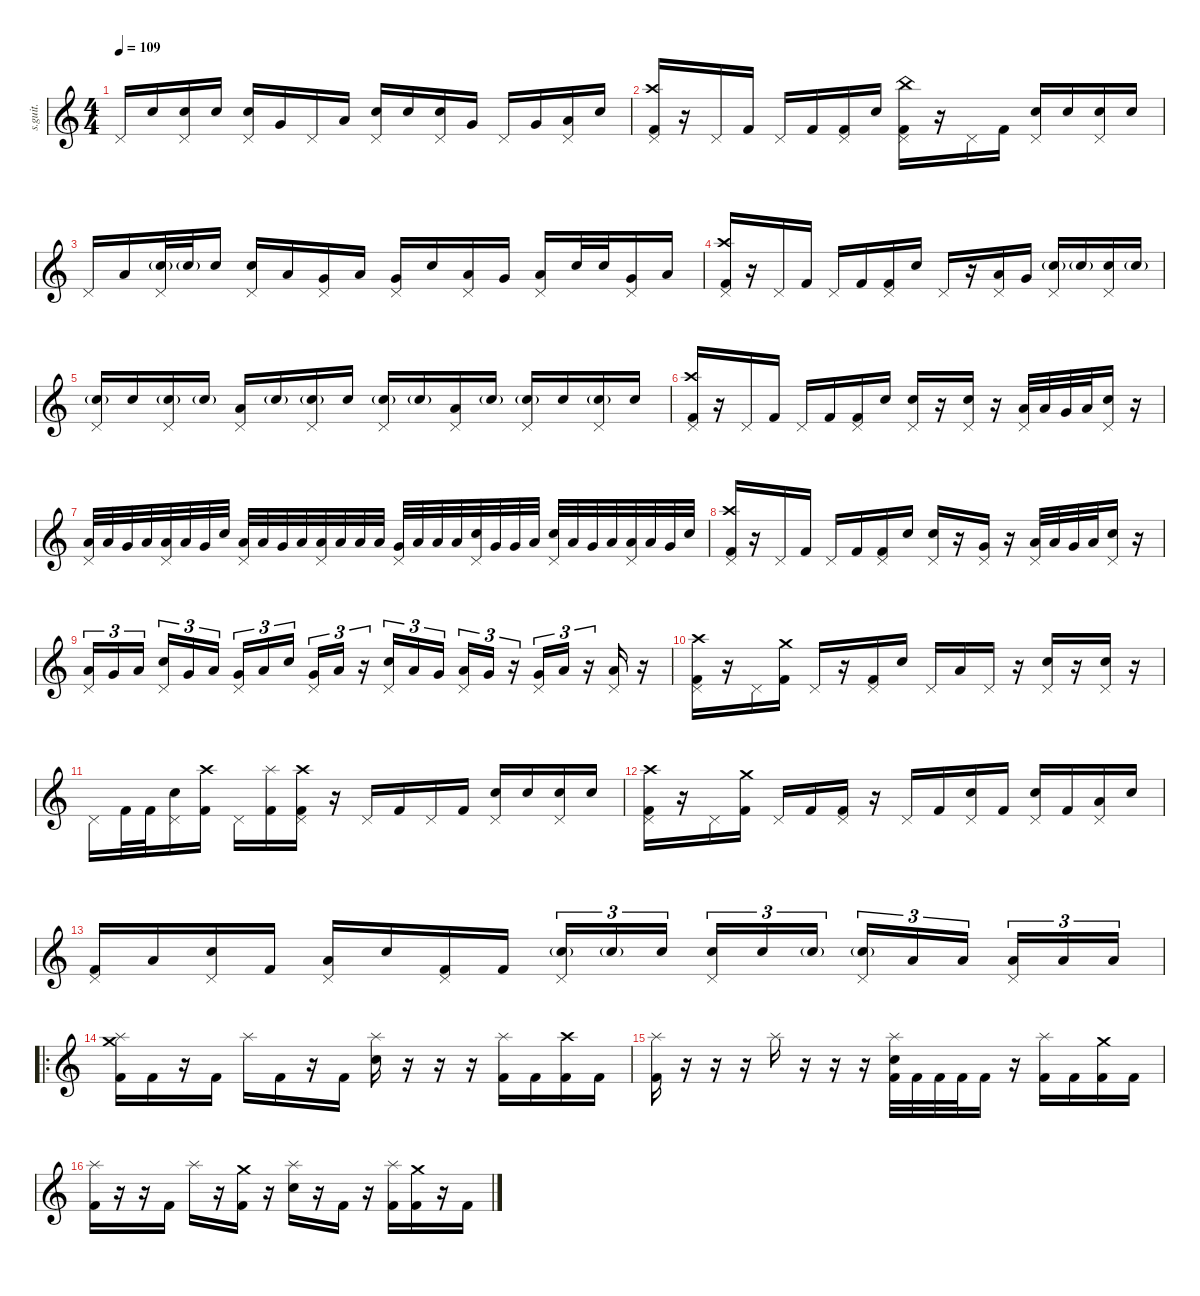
\defaultSystemsLayout 4
\hideDynamics
\bracketExtendMode nobrackets
\track ("Drumkit" "s.guit.") {instrument percussion}
\staff {score}
\articulation defaults
\ts (4 4)
\tempo 109
\clef g2
\ks c "Pedal Hi-Hat (hit)".16{lyrics (0 "") lyrics (1 "") lyrics (2 "") lyrics (3 "") lyrics (4 "") dy f} "Electric Snare (hit)".16{lyrics (0 "") lyrics (1 "") lyrics (2 "") lyrics (3 "") lyrics (4 "")}
("Pedal Hi-Hat (hit)" "Electric Snare (hit)").16{lyrics (0 "") lyrics (1 "") lyrics (2 "") lyrics (3 "") lyrics (4 "")} "Electric Snare (hit)".16{lyrics (0 "") lyrics (1 "") lyrics (2 "") lyrics (3 "") lyrics (4 "")} ("Pedal Hi-Hat (hit)" "Electric Snare (hit)").16{lyrics (0 "") lyrics (1 "") lyrics (2 "") lyrics (3 "") lyrics (4 "")} "Very Low Tom (hit)".16{lyrics (0 "") lyrics (1 "") lyrics (2 "") lyrics (3 "") lyrics (4 "")} "Pedal Hi-Hat (hit)".16{lyrics (0 "") lyrics (1 "") lyrics (2 "") lyrics (3 "") lyrics (4 "")} "Low Floor Tom (hit)".16{lyrics (0 "") lyrics (1 "") lyrics (2 "") lyrics (3 "") lyrics (4 "")} ("Pedal Hi-Hat (hit)" "Electric Snare (hit)").16{lyrics (0 "") lyrics (1 "") lyrics (2 "") lyrics (3 "") lyrics (4 "")} "Electric Snare (hit)".16{lyrics (0 "") lyrics (1 "") lyrics (2 "") lyrics (3 "") lyrics (4 "")} ("Pedal Hi-Hat (hit)" "Electric Snare (hit)").16{lyrics (0 "") lyrics (1 "") lyrics (2 "") lyrics (3 "") lyrics (4 "")} "Very Low Tom (hit)".16{lyrics (0 "") lyrics (1 "") lyrics (2 "") lyrics (3 "") lyrics (4 "")} "Pedal Hi-Hat (hit)".16{lyrics (0 "") lyrics (1 "") lyrics (2 "") lyrics (3 "") lyrics (4 "")} "Very Low Tom (hit)".16{lyrics (0 "") lyrics (1 "") lyrics (2 "") lyrics (3 "") lyrics (4 "")} ("Pedal Hi-Hat (hit)" "Low Floor Tom (hit)").16{lyrics (0 "") lyrics (1 "") lyrics (2 "") lyrics (3 "") lyrics (4 "")} "Electric Snare (hit)".16{lyrics (0 "") lyrics (1 "") lyrics (2 "") lyrics (3 "") lyrics (4 "")} |
("Crash high (hit)" "Pedal Hi-Hat (hit)" "Kick (hit) 2").16{lyrics (0 "") lyrics (1 "") lyrics (2 "") lyrics (3 "") lyrics (4 "")} r.16 "Pedal Hi-Hat (hit)".16{lyrics (0 "") lyrics (1 "") lyrics (2 "") lyrics (3 "") lyrics (4 "")} "Kick (hit) 2".16{lyrics (0 "") lyrics (1 "") lyrics (2 "") lyrics (3 "") lyrics (4 "")} "Pedal Hi-Hat (hit)".16{lyrics (0 "") lyrics (1 "") lyrics (2 "") lyrics (3 "") lyrics (4 "")} "Kick (hit) 2".16{lyrics (0 "") lyrics (1 "") lyrics (2 "") lyrics (3 "") lyrics (4 "")} ("Pedal Hi-Hat (hit)" "Kick (hit) 2").16{lyrics (0 "") lyrics (1 "") lyrics (2 "") lyrics (3 "") lyrics (4 "")} "Electric Snare (hit)".16{lyrics (0 "") lyrics (1 "") lyrics (2 "") lyrics (3 "") lyrics (4 "")} ("China (hit)" "Pedal Hi-Hat (hit)" "Kick (hit) 2").16{lyrics (0 "") lyrics (1 "") lyrics (2 "") lyrics (3 "") lyrics (4 "")} r.16 "Pedal Hi-Hat (hit)".16{lyrics (0 "") lyrics (1 "") lyrics (2 "") lyrics (3 "") lyrics (4 "")} "Kick (hit) 2".16{lyrics (0 "") lyrics (1 "") lyrics (2 "") lyrics (3 "") lyrics (4 "")} ("Pedal Hi-Hat (hit)" "Electric Snare (hit)").16{lyrics (0 "") lyrics (1 "") lyrics (2 "") lyrics (3 "") lyrics (4 "")} "Electric Snare (hit)".16{lyrics (0 "") lyrics (1 "") lyrics (2 "") lyrics (3 "") lyrics (4 "")} ("Pedal Hi-Hat (hit)" "Electric Snare (hit)").16{lyrics (0 "") lyrics (1 "") lyrics (2 "") lyrics (3 "") lyrics (4 "")} "Electric Snare (hit)".16{lyrics (0 "") lyrics (1 "") lyrics (2 "") lyrics (3 "") lyrics (4 "")} |
"Pedal Hi-Hat (hit)".16{lyrics (0 "") lyrics (1 "") lyrics (2 "") lyrics (3 "") lyrics (4 "")} "Low Floor Tom (hit)".16{lyrics (0 "") lyrics (1 "") lyrics (2 "") lyrics (3 "") lyrics (4 "")} ("Pedal Hi-Hat (hit)" "Electric Snare (hit)"{g}).32{lyrics (0 "") lyrics (1 "") lyrics (2 "") lyrics (3 "") lyrics (4 "")} "Electric Snare (hit)"{g}.32{lyrics (0 "") lyrics (1 "") lyrics (2 "") lyrics (3 "") lyrics (4 "") dy mp} "Electric Snare (hit)".16{lyrics (0 "") lyrics (1 "") lyrics (2 "") lyrics (3 "") lyrics (4 "") dy f} ("Pedal Hi-Hat (hit)" "Electric Snare (hit)").16{lyrics (0 "") lyrics (1 "") lyrics (2 "") lyrics (3 "") lyrics (4 "")} "Low Tom (hit)".16{lyrics (0 "") lyrics (1 "") lyrics (2 "") lyrics (3 "") lyrics (4 "")} ("Pedal Hi-Hat (hit)" "Very Low Tom (hit)").16{lyrics (0 "") lyrics (1 "") lyrics (2 "") lyrics (3 "") lyrics (4 "")} "Low Floor Tom (hit)".16{lyrics (0 "") lyrics (1 "") lyrics (2 "") lyrics (3 "") lyrics (4 "")} ("Pedal Hi-Hat (hit)" "Very Low Tom (hit)").16{lyrics (0 "") lyrics (1 "") lyrics (2 "") lyrics (3 "") lyrics (4 "")} "Electric Snare (hit)".16{lyrics (0 "") lyrics (1 "") lyrics (2 "") lyrics (3 "") lyrics (4 "")} ("Pedal Hi-Hat (hit)" "Low Tom (hit)").16{lyrics (0 "") lyrics (1 "") lyrics (2 "") lyrics (3 "") lyrics (4 "")} "Very Low Tom (hit)".16{lyrics (0 "") lyrics (1 "") lyrics (2 "") lyrics (3 "") lyrics (4 "")} ("Pedal Hi-Hat (hit)" "Low Floor Tom (hit)").16{lyrics (0 "") lyrics (1 "") lyrics (2 "") lyrics (3 "") lyrics (4 "")} "Electric Snare (hit)".32{lyrics (0 "") lyrics (1 "") lyrics (2 "") lyrics (3 "") lyrics (4 "")} "Electric Snare (hit)".32{lyrics (0 "") lyrics (1 "") lyrics (2 "") lyrics (3 "") lyrics (4 "")} ("Pedal Hi-Hat (hit)" "Very Low Tom (hit)").16{lyrics (0 "") lyrics (1 "") lyrics (2 "") lyrics (3 "") lyrics (4 "")} "Low Floor Tom (hit)".16{lyrics (0 "") lyrics (1 "") lyrics (2 "") lyrics (3 "") lyrics (4 "")} |
("Crash high (hit)" "Pedal Hi-Hat (hit)" "Kick (hit) 2").16{lyrics (0 "") lyrics (1 "") lyrics (2 "") lyrics (3 "") lyrics (4 "")} r.16 "Pedal Hi-Hat (hit)".16{lyrics (0 "") lyrics (1 "") lyrics (2 "") lyrics (3 "") lyrics (4 "")} "Kick (hit) 2".16{lyrics (0 "") lyrics (1 "") lyrics (2 "") lyrics (3 "") lyrics (4 "")} "Pedal Hi-Hat (hit)".16{lyrics (0 "") lyrics (1 "") lyrics (2 "") lyrics (3 "") lyrics (4 "")} "Kick (hit) 2".16{lyrics (0 "") lyrics (1 "") lyrics (2 "") lyrics (3 "") lyrics (4 "")} ("Pedal Hi-Hat (hit)" "Kick (hit) 2").16{lyrics (0 "") lyrics (1 "") lyrics (2 "") lyrics (3 "") lyrics (4 "")} "Electric Snare (hit)".16{lyrics (0 "") lyrics (1 "") lyrics (2 "") lyrics (3 "") lyrics (4 "")} "Pedal Hi-Hat (hit)".16{lyrics (0 "") lyrics (1 "") lyrics (2 "") lyrics (3 "") lyrics (4 "")} r.16 ("Pedal Hi-Hat (hit)" "Low Tom (hit)").16{lyrics (0 "") lyrics (1 "") lyrics (2 "") lyrics (3 "") lyrics (4 "")} "Very Low Tom (hit)".16{lyrics (0 "") lyrics (1 "") lyrics (2 "") lyrics (3 "") lyrics (4 "")} ("Pedal Hi-Hat (hit)" "Electric Snare (hit)"{g}).16{lyrics (0 "") lyrics (1 "") lyrics (2 "") lyrics (3 "") lyrics (4 "")} "Electric Snare (hit)"{g}.16{lyrics (0 "") lyrics (1 "") lyrics (2 "") lyrics (3 "") lyrics (4 "") dy mp} ("Pedal Hi-Hat (hit)" "Electric Snare (hit)").16{lyrics (0 "") lyrics (1 "") lyrics (2 "") lyrics (3 "") lyrics (4 "") dy f} "Electric Snare (hit)"{g}.16{lyrics (0 "") lyrics (1 "") lyrics (2 "") lyrics (3 "") lyrics (4 "") dy mp} |
("Pedal Hi-Hat (hit)" "Electric Snare (hit)"{g}).16{lyrics (0 "") lyrics (1 "") lyrics (2 "") lyrics (3 "") lyrics (4 "")} "Electric Snare (hit)".16{lyrics (0 "") lyrics (1 "") lyrics (2 "") lyrics (3 "") lyrics (4 "") dy f} ("Pedal Hi-Hat (hit)" "Electric Snare (hit)"{g}).16{lyrics (0 "") lyrics (1 "") lyrics (2 "") lyrics (3 "") lyrics (4 "")} "Electric Snare (hit)"{g}.16{lyrics (0 "") lyrics (1 "") lyrics (2 "") lyrics (3 "") lyrics (4 "") dy mp} ("Pedal Hi-Hat (hit)" "Low Tom (hit)").16{lyrics (0 "") lyrics (1 "") lyrics (2 "") lyrics (3 "") lyrics (4 "") dy f} "Electric Snare (hit)"{g}.16{lyrics (0 "") lyrics (1 "") lyrics (2 "") lyrics (3 "") lyrics (4 "") dy mp} ("Pedal Hi-Hat (hit)" "Electric Snare (hit)"{g}).16{lyrics (0 "") lyrics (1 "") lyrics (2 "") lyrics (3 "") lyrics (4 "")} "Electric Snare (hit)".16{lyrics (0 "") lyrics (1 "") lyrics (2 "") lyrics (3 "") lyrics (4 "") dy f} ("Pedal Hi-Hat (hit)" "Electric Snare (hit)"{g}).16{lyrics (0 "") lyrics (1 "") lyrics (2 "") lyrics (3 "") lyrics (4 "")} "Electric Snare (hit)"{g}.16{lyrics (0 "") lyrics (1 "") lyrics (2 "") lyrics (3 "") lyrics (4 "") dy mp} ("Pedal Hi-Hat (hit)" "Low Tom (hit)").16{lyrics (0 "") lyrics (1 "") lyrics (2 "") lyrics (3 "") lyrics (4 "") dy f} "Electric Snare (hit)"{g}.16{lyrics (0 "") lyrics (1 "") lyrics (2 "") lyrics (3 "") lyrics (4 "") dy mp} ("Pedal Hi-Hat (hit)" "Electric Snare (hit)"{g}).16{lyrics (0 "") lyrics (1 "") lyrics (2 "") lyrics (3 "") lyrics (4 "")} "Electric Snare (hit)".16{lyrics (0 "") lyrics (1 "") lyrics (2 "") lyrics (3 "") lyrics (4 "") dy f} ("Pedal Hi-Hat (hit)" "Electric Snare (hit)"{g}).16{lyrics (0 "") lyrics (1 "") lyrics (2 "") lyrics (3 "") lyrics (4 "")} "Electric Snare (hit)".16{lyrics (0 "") lyrics (1 "") lyrics (2 "") lyrics (3 "") lyrics (4 "")} |
("Crash high (hit)" "Pedal Hi-Hat (hit)" "Kick (hit) 2").16{lyrics (0 "") lyrics (1 "") lyrics (2 "") lyrics (3 "") lyrics (4 "")} r.16 "Pedal Hi-Hat (hit)".16{lyrics (0 "") lyrics (1 "") lyrics (2 "") lyrics (3 "") lyrics (4 "")} "Kick (hit) 2".16{lyrics (0 "") lyrics (1 "") lyrics (2 "") lyrics (3 "") lyrics (4 "")} "Pedal Hi-Hat (hit)".16{lyrics (0 "") lyrics (1 "") lyrics (2 "") lyrics (3 "") lyrics (4 "")} "Kick (hit) 2".16{lyrics (0 "") lyrics (1 "") lyrics (2 "") lyrics (3 "") lyrics (4 "")} ("Pedal Hi-Hat (hit)" "Kick (hit) 2").16{lyrics (0 "") lyrics (1 "") lyrics (2 "") lyrics (3 "") lyrics (4 "")} "Electric Snare (hit)".16{lyrics (0 "") lyrics (1 "") lyrics (2 "") lyrics (3 "") lyrics (4 "")} ("Pedal Hi-Hat (hit)" "Electric Snare (hit)").16{lyrics (0 "") lyrics (1 "") lyrics (2 "") lyrics (3 "") lyrics (4 "")} r.16 ("Pedal Hi-Hat (hit)" "Electric Snare (hit)").16{lyrics (0 "") lyrics (1 "") lyrics (2 "") lyrics (3 "") lyrics (4 "")} r.16 ("Pedal Hi-Hat (hit)" "Low Tom (hit)").32{lyrics (0 "") lyrics (1 "") lyrics (2 "") lyrics (3 "") lyrics (4 "")} "Low Tom (hit)".32{lyrics (0 "") lyrics (1 "") lyrics (2 "") lyrics (3 "") lyrics (4 "")} "Very Low Tom (hit)".32{lyrics (0 "") lyrics (1 "") lyrics (2 "") lyrics (3 "") lyrics (4 "")} "Low Floor Tom (hit)".32{lyrics (0 "") lyrics (1 "") lyrics (2 "") lyrics (3 "") lyrics (4 "")} ("Pedal Hi-Hat (hit)" "Electric Snare (hit)").16{lyrics (0 "") lyrics (1 "") lyrics (2 "") lyrics (3 "") lyrics (4 "")} r.16 |
("Pedal Hi-Hat (hit)" "Low Tom (hit)").32{lyrics (0 "") lyrics (1 "") lyrics (2 "") lyrics (3 "") lyrics (4 "")} "Low Tom (hit)".32{lyrics (0 "") lyrics (1 "") lyrics (2 "") lyrics (3 "") lyrics (4 "")} "Very Low Tom (hit)".32{lyrics (0 "") lyrics (1 "") lyrics (2 "") lyrics (3 "") lyrics (4 "")} "Low Floor Tom (hit)".32{lyrics (0 "") lyrics (1 "") lyrics (2 "") lyrics (3 "") lyrics (4 "")} ("Pedal Hi-Hat (hit)" "Low Floor Tom (hit)").32{lyrics (0 "") lyrics (1 "") lyrics (2 "") lyrics (3 "") lyrics (4 "")} "Low Floor Tom (hit)".32{lyrics (0 "") lyrics (1 "") lyrics (2 "") lyrics (3 "") lyrics (4 "")} "Very Low Tom (hit)".32{lyrics (0 "") lyrics (1 "") lyrics (2 "") lyrics (3 "") lyrics (4 "")} "Electric Snare (hit)".32{lyrics (0 "") lyrics (1 "") lyrics (2 "") lyrics (3 "") lyrics (4 "")} ("Pedal Hi-Hat (hit)" "Low Tom (hit)").32{lyrics (0 "") lyrics (1 "") lyrics (2 "") lyrics (3 "") lyrics (4 "")} "Low Tom (hit)".32{lyrics (0 "") lyrics (1 "") lyrics (2 "") lyrics (3 "") lyrics (4 "")} "Very Low Tom (hit)".32{lyrics (0 "") lyrics (1 "") lyrics (2 "") lyrics (3 "") lyrics (4 "")} "Low Floor Tom (hit)".32{lyrics (0 "") lyrics (1 "") lyrics (2 "") lyrics (3 "") lyrics (4 "")} ("Pedal Hi-Hat (hit)" "Low Floor Tom (hit)").32{lyrics (0 "") lyrics (1 "") lyrics (2 "") lyrics (3 "") lyrics (4 "")} "Low Floor Tom (hit)".32{lyrics (0 "") lyrics (1 "") lyrics (2 "") lyrics (3 "") lyrics (4 "")} "Low Floor Tom (hit)".32{lyrics (0 "") lyrics (1 "") lyrics (2 "") lyrics (3 "") lyrics (4 "")} "Low Floor Tom (hit)".32{lyrics (0 "") lyrics (1 "") lyrics (2 "") lyrics (3 "") lyrics (4 "")} ("Pedal Hi-Hat (hit)" "Very Low Tom (hit)").32{lyrics (0 "") lyrics (1 "") lyrics (2 "") lyrics (3 "") lyrics (4 "")} "Low Floor Tom (hit)".32{lyrics (0 "") lyrics (1 "") lyrics (2 "") lyrics (3 "") lyrics (4 "")} "Low Floor Tom (hit)".32{lyrics (0 "") lyrics (1 "") lyrics (2 "") lyrics (3 "") lyrics (4 "")} "Low Floor Tom (hit)".32{lyrics (0 "") lyrics (1 "") lyrics (2 "") lyrics (3 "") lyrics (4 "")} ("Pedal Hi-Hat (hit)" "Electric Snare (hit)").32{lyrics (0 "") lyrics (1 "") lyrics (2 "") lyrics (3 "") lyrics (4 "")} "Very Low Tom (hit)".32{lyrics (0 "") lyrics (1 "") lyrics (2 "") lyrics (3 "") lyrics (4 "")} "Very Low Tom (hit)".32{lyrics (0 "") lyrics (1 "") lyrics (2 "") lyrics (3 "") lyrics (4 "")} "Low Floor Tom (hit)".32{lyrics (0 "") lyrics (1 "") lyrics (2 "") lyrics (3 "") lyrics (4 "")} ("Pedal Hi-Hat (hit)" "Electric Snare (hit)").32{lyrics (0 "") lyrics (1 "") lyrics (2 "") lyrics (3 "") lyrics (4 "")} "Low Tom (hit)".32{lyrics (0 "") lyrics (1 "") lyrics (2 "") lyrics (3 "") lyrics (4 "")} "Very Low Tom (hit)".32{lyrics (0 "") lyrics (1 "") lyrics (2 "") lyrics (3 "") lyrics (4 "")} "Low Floor Tom (hit)".32{lyrics (0 "") lyrics (1 "") lyrics (2 "") lyrics (3 "") lyrics (4 "")} ("Pedal Hi-Hat (hit)" "Low Floor Tom (hit)").32{lyrics (0 "") lyrics (1 "") lyrics (2 "") lyrics (3 "") lyrics (4 "")} "Low Floor Tom (hit)".32{lyrics (0 "") lyrics (1 "") lyrics (2 "") lyrics (3 "") lyrics (4 "")} "Very Low Tom (hit)".32{lyrics (0 "") lyrics (1 "") lyrics (2 "") lyrics (3 "") lyrics (4 "")} "Electric Snare (hit)".32{lyrics (0 "") lyrics (1 "") lyrics (2 "") lyrics (3 "") lyrics (4 "")} |
("Crash high (hit)" "Pedal Hi-Hat (hit)" "Kick (hit) 2").16{lyrics (0 "") lyrics (1 "") lyrics (2 "") lyrics (3 "") lyrics (4 "")} r.16 "Pedal Hi-Hat (hit)".16{lyrics (0 "") lyrics (1 "") lyrics (2 "") lyrics (3 "") lyrics (4 "")} "Kick (hit) 2".16{lyrics (0 "") lyrics (1 "") lyrics (2 "") lyrics (3 "") lyrics (4 "")} "Pedal Hi-Hat (hit)".16{lyrics (0 "") lyrics (1 "") lyrics (2 "") lyrics (3 "") lyrics (4 "")} "Kick (hit) 2".16{lyrics (0 "") lyrics (1 "") lyrics (2 "") lyrics (3 "") lyrics (4 "")} ("Pedal Hi-Hat (hit)" "Kick (hit) 2").16{lyrics (0 "") lyrics (1 "") lyrics (2 "") lyrics (3 "") lyrics (4 "")} "Electric Snare (hit)".16{lyrics (0 "") lyrics (1 "") lyrics (2 "") lyrics (3 "") lyrics (4 "")} ("Pedal Hi-Hat (hit)" "Electric Snare (hit)").16{lyrics (0 "") lyrics (1 "") lyrics (2 "") lyrics (3 "") lyrics (4 "")} r.16 ("Pedal Hi-Hat (hit)" "Very Low Tom (hit)").16{lyrics (0 "") lyrics (1 "") lyrics (2 "") lyrics (3 "") lyrics (4 "")} r.16 ("Pedal Hi-Hat (hit)" "Low Tom (hit)").32{lyrics (0 "") lyrics (1 "") lyrics (2 "") lyrics (3 "") lyrics (4 "")} "Low Tom (hit)".32{lyrics (0 "") lyrics (1 "") lyrics (2 "") lyrics (3 "") lyrics (4 "")} "Very Low Tom (hit)".32{lyrics (0 "") lyrics (1 "") lyrics (2 "") lyrics (3 "") lyrics (4 "")} "Low Floor Tom (hit)".32{lyrics (0 "") lyrics (1 "") lyrics (2 "") lyrics (3 "") lyrics (4 "")} ("Pedal Hi-Hat (hit)" "Electric Snare (hit)").16{lyrics (0 "") lyrics (1 "") lyrics (2 "") lyrics (3 "") lyrics (4 "")} r.16 |
("Pedal Hi-Hat (hit)" "Low Tom (hit)").16{tu (3 2) lyrics (0 "") lyrics (1 "") lyrics (2 "") lyrics (3 "") lyrics (4 "")} "Very Low Tom (hit)".16{tu (3 2) lyrics (0 "") lyrics (1 "") lyrics (2 "") lyrics (3 "") lyrics (4 "")} "Low Floor Tom (hit)".16{tu (3 2) lyrics (0 "") lyrics (1 "") lyrics (2 "") lyrics (3 "") lyrics (4 "")} ("Pedal Hi-Hat (hit)" "Electric Snare (hit)").16{tu (3 2) lyrics (0 "") lyrics (1 "") lyrics (2 "") lyrics (3 "") lyrics (4 "")} "Very Low Tom (hit)".16{tu (3 2) lyrics (0 "") lyrics (1 "") lyrics (2 "") lyrics (3 "") lyrics (4 "")} "Low Tom (hit)".16{tu (3 2) lyrics (0 "") lyrics (1 "") lyrics (2 "") lyrics (3 "") lyrics (4 "")} ("Pedal Hi-Hat (hit)" "Very Low Tom (hit)").16{tu (3 2) lyrics (0 "") lyrics (1 "") lyrics (2 "") lyrics (3 "") lyrics (4 "")} "Low Floor Tom (hit)".16{tu (3 2) lyrics (0 "") lyrics (1 "") lyrics (2 "") lyrics (3 "") lyrics (4 "")} "Electric Snare (hit)".16{tu (3 2) lyrics (0 "") lyrics (1 "") lyrics (2 "") lyrics (3 "") lyrics (4 "")} ("Pedal Hi-Hat (hit)" "Very Low Tom (hit)").16{tu (3 2) lyrics (0 "") lyrics (1 "") lyrics (2 "") lyrics (3 "") lyrics (4 "")} "Low Floor Tom (hit)".16{tu (3 2) lyrics (0 "") lyrics (1 "") lyrics (2 "") lyrics (3 "") lyrics (4 "")} r.16{tu (3 2)} ("Pedal Hi-Hat (hit)" "Electric Snare (hit)").16{tu (3 2) lyrics (0 "") lyrics (1 "") lyrics (2 "") lyrics (3 "") lyrics (4 "")} "Low Tom (hit)".16{tu (3 2) lyrics (0 "") lyrics (1 "") lyrics (2 "") lyrics (3 "") lyrics (4 "")} "Very Low Tom (hit)".16{tu (3 2) lyrics (0 "") lyrics (1 "") lyrics (2 "") lyrics (3 "") lyrics (4 "")} ("Pedal Hi-Hat (hit)" "Low Floor Tom (hit)").16{tu (3 2) lyrics (0 "") lyrics (1 "") lyrics (2 "") lyrics (3 "") lyrics (4 "")} "Very Low Tom (hit)".16{tu (3 2) lyrics (0 "") lyrics (1 "") lyrics (2 "") lyrics (3 "") lyrics (4 "")} r.16{tu (3 2)} ("Pedal Hi-Hat (hit)" "Very Low Tom (hit)").16{tu (3 2) lyrics (0 "") lyrics (1 "") lyrics (2 "") lyrics (3 "") lyrics (4 "")} "Low Floor Tom (hit)".16{tu (3 2) lyrics (0 "") lyrics (1 "") lyrics (2 "") lyrics (3 "") lyrics (4 "")} r.16{tu (3 2)} ("Pedal Hi-Hat (hit)" "Low Floor Tom (hit)").16{lyrics (0 "") lyrics (1 "") lyrics (2 "") lyrics (3 "") lyrics (4 "")} r.16 |
("Crash high (hit)" "Pedal Hi-Hat (hit)" "Kick (hit) 2").16{lyrics (0 "") lyrics (1 "") lyrics (2 "") lyrics (3 "") lyrics (4 "")} r.16 "Pedal Hi-Hat (hit)".16{lyrics (0 "") lyrics (1 "") lyrics (2 "") lyrics (3 "") lyrics (4 "")} ("Crash medium (hit)" "Kick (hit) 2").16{lyrics (0 "") lyrics (1 "") lyrics (2 "") lyrics (3 "") lyrics (4 "")} "Pedal Hi-Hat (hit)".16{lyrics (0 "") lyrics (1 "") lyrics (2 "") lyrics (3 "") lyrics (4 "")} r.16 ("Pedal Hi-Hat (hit)" "Kick (hit) 2").16{lyrics (0 "") lyrics (1 "") lyrics (2 "") lyrics (3 "") lyrics (4 "")} "Electric Snare (hit)".16{lyrics (0 "") lyrics (1 "") lyrics (2 "") lyrics (3 "") lyrics (4 "")} "Pedal Hi-Hat (hit)".16{lyrics (0 "") lyrics (1 "") lyrics (2 "") lyrics (3 "") lyrics (4 "")} "Low Tom (hit)".16{lyrics (0 "") lyrics (1 "") lyrics (2 "") lyrics (3 "") lyrics (4 "")} "Pedal Hi-Hat (hit)".16{lyrics (0 "") lyrics (1 "") lyrics (2 "") lyrics (3 "") lyrics (4 "")} r.16 ("Pedal Hi-Hat (hit)" "Electric Snare (hit)").16{lyrics (0 "") lyrics (1 "") lyrics (2 "") lyrics (3 "") lyrics (4 "")} r.16 ("Pedal Hi-Hat (hit)" "Electric Snare (hit)").16{lyrics (0 "") lyrics (1 "") lyrics (2 "") lyrics (3 "") lyrics (4 "")} r.16 |
"Pedal Hi-Hat (hit)".16{lyrics (0 "") lyrics (1 "") lyrics (2 "") lyrics (3 "") lyrics (4 "")} "Kick (hit) 2".32{lyrics (0 "") lyrics (1 "") lyrics (2 "") lyrics (3 "") lyrics (4 "")} "Kick (hit) 2".32{lyrics (0 "") lyrics (1 "") lyrics (2 "") lyrics (3 "") lyrics (4 "")} ("Pedal Hi-Hat (hit)" "Electric Snare (hit)").16{lyrics (0 "") lyrics (1 "") lyrics (2 "") lyrics (3 "") lyrics (4 "")} ("Crash high (hit)" "Kick (hit) 2").16{lyrics (0 "") lyrics (1 "") lyrics (2 "") lyrics (3 "") lyrics (4 "")} "Pedal Hi-Hat (hit)".16{lyrics (0 "") lyrics (1 "") lyrics (2 "") lyrics (3 "") lyrics (4 "")} ("Splash (hit)" "Kick (hit) 2").16{lyrics (0 "") lyrics (1 "") lyrics (2 "") lyrics (3 "") lyrics (4 "")} ("Crash high (hit)" "Pedal Hi-Hat (hit)" "Kick (hit) 2").16{lyrics (0 "") lyrics (1 "") lyrics (2 "") lyrics (3 "") lyrics (4 "")} r.16 "Pedal Hi-Hat (hit)".16{lyrics (0 "") lyrics (1 "") lyrics (2 "") lyrics (3 "") lyrics (4 "")} "Kick (hit) 2".16{lyrics (0 "") lyrics (1 "") lyrics (2 "") lyrics (3 "") lyrics (4 "")} "Pedal Hi-Hat (hit)".16{lyrics (0 "") lyrics (1 "") lyrics (2 "") lyrics (3 "") lyrics (4 "")} "Kick (hit) 2".16{lyrics (0 "") lyrics (1 "") lyrics (2 "") lyrics (3 "") lyrics (4 "")} ("Pedal Hi-Hat (hit)" "Electric Snare (hit)").16{lyrics (0 "") lyrics (1 "") lyrics (2 "") lyrics (3 "") lyrics (4 "")} "Electric Snare (hit)".16{lyrics (0 "") lyrics (1 "") lyrics (2 "") lyrics (3 "") lyrics (4 "")} ("Pedal Hi-Hat (hit)" "Electric Snare (hit)").16{lyrics (0 "") lyrics (1 "") lyrics (2 "") lyrics (3 "") lyrics (4 "")} "Electric Snare (hit)".16{lyrics (0 "") lyrics (1 "") lyrics (2 "") lyrics (3 "") lyrics (4 "")} |
("Crash high (hit)" "Pedal Hi-Hat (hit)" "Kick (hit) 2").16{lyrics (0 "") lyrics (1 "") lyrics (2 "") lyrics (3 "") lyrics (4 "")} r.16 "Pedal Hi-Hat (hit)".16{lyrics (0 "") lyrics (1 "") lyrics (2 "") lyrics (3 "") lyrics (4 "")} ("Crash medium (hit)" "Kick (hit) 2").16{lyrics (0 "") lyrics (1 "") lyrics (2 "") lyrics (3 "") lyrics (4 "")} "Pedal Hi-Hat (hit)".16{lyrics (0 "") lyrics (1 "") lyrics (2 "") lyrics (3 "") lyrics (4 "")} "Kick (hit) 2".16{lyrics (0 "") lyrics (1 "") lyrics (2 "") lyrics (3 "") lyrics (4 "")} ("Pedal Hi-Hat (hit)" "Kick (hit) 2").16{lyrics (0 "") lyrics (1 "") lyrics (2 "") lyrics (3 "") lyrics (4 "")} r.16 "Pedal Hi-Hat (hit)".16{lyrics (0 "") lyrics (1 "") lyrics (2 "") lyrics (3 "") lyrics (4 "")} "Kick (hit) 2".16{lyrics (0 "") lyrics (1 "") lyrics (2 "") lyrics (3 "") lyrics (4 "")} ("Pedal Hi-Hat (hit)" "Electric Snare (hit)").16{lyrics (0 "") lyrics (1 "") lyrics (2 "") lyrics (3 "") lyrics (4 "")} "Kick (hit) 2".16{lyrics (0 "") lyrics (1 "") lyrics (2 "") lyrics (3 "") lyrics (4 "")} ("Pedal Hi-Hat (hit)" "Electric Snare (hit)").16{lyrics (0 "") lyrics (1 "") lyrics (2 "") lyrics (3 "") lyrics (4 "")} "Kick (hit) 2".16{lyrics (0 "") lyrics (1 "") lyrics (2 "") lyrics (3 "") lyrics (4 "")} ("Pedal Hi-Hat (hit)" "Low Tom (hit)").16{lyrics (0 "") lyrics (1 "") lyrics (2 "") lyrics (3 "") lyrics (4 "")} "Electric Snare (hit)".16{lyrics (0 "") lyrics (1 "") lyrics (2 "") lyrics (3 "") lyrics (4 "")} |
("Pedal Hi-Hat (hit)" "Kick (hit) 2").16{lyrics (0 "") lyrics (1 "") lyrics (2 "") lyrics (3 "") lyrics (4 "")} "Low Tom (hit)".16{lyrics (0 "") lyrics (1 "") lyrics (2 "") lyrics (3 "") lyrics (4 "")} ("Pedal Hi-Hat (hit)" "Electric Snare (hit)").16{lyrics (0 "") lyrics (1 "") lyrics (2 "") lyrics (3 "") lyrics (4 "")} "Kick (hit) 2".16{lyrics (0 "") lyrics (1 "") lyrics (2 "") lyrics (3 "") lyrics (4 "")} ("Pedal Hi-Hat (hit)" "Low Tom (hit)").16{lyrics (0 "") lyrics (1 "") lyrics (2 "") lyrics (3 "") lyrics (4 "")} "Electric Snare (hit)".16{lyrics (0 "") lyrics (1 "") lyrics (2 "") lyrics (3 "") lyrics (4 "")} ("Pedal Hi-Hat (hit)" "Kick (hit) 2").16{lyrics (0 "") lyrics (1 "") lyrics (2 "") lyrics (3 "") lyrics (4 "")} "Kick (hit) 2".16{lyrics (0 "") lyrics (1 "") lyrics (2 "") lyrics (3 "") lyrics (4 "")} ("Pedal Hi-Hat (hit)" "Electric Snare (hit)"{g}).16{tu (3 2) lyrics (0 "") lyrics (1 "") lyrics (2 "") lyrics (3 "") lyrics (4 "")} "Electric Snare (hit)"{g}.16{tu (3 2) lyrics (0 "") lyrics (1 "") lyrics (2 "") lyrics (3 "") lyrics (4 "") dy mp} "Electric Snare (hit)".16{tu (3 2) lyrics (0 "") lyrics (1 "") lyrics (2 "") lyrics (3 "") lyrics (4 "") dy f} ("Pedal Hi-Hat (hit)" "Electric Snare (hit)").16{tu (3 2) lyrics (0 "") lyrics (1 "") lyrics (2 "") lyrics (3 "") lyrics (4 "")} "Electric Snare (hit)".16{tu (3 2) lyrics (0 "") lyrics (1 "") lyrics (2 "") lyrics (3 "") lyrics (4 "")} "Electric Snare (hit)"{g}.16{tu (3 2) lyrics (0 "") lyrics (1 "") lyrics (2 "") lyrics (3 "") lyrics (4 "") dy mp} ("Pedal Hi-Hat (hit)" "Electric Snare (hit)"{g}).16{tu (3 2) lyrics (0 "") lyrics (1 "") lyrics (2 "") lyrics (3 "") lyrics (4 "")} "Low Tom (hit)".16{tu (3 2) lyrics (0 "") lyrics (1 "") lyrics (2 "") lyrics (3 "") lyrics (4 "") dy f} "Low Tom (hit)".16{tu (3 2) lyrics (0 "") lyrics (1 "") lyrics (2 "") lyrics (3 "") lyrics (4 "")} ("Pedal Hi-Hat (hit)" "Low Tom (hit)").16{tu (3 2) lyrics (0 "") lyrics (1 "") lyrics (2 "") lyrics (3 "") lyrics (4 "")} "Low Floor Tom (hit)".16{tu (3 2) lyrics (0 "") lyrics (1 "") lyrics (2 "") lyrics (3 "") lyrics (4 "")} "Low Floor Tom (hit)".16{tu (3 2) lyrics (0 "") lyrics (1 "") lyrics (2 "") lyrics (3 "") lyrics (4 "")} |
\ro
("Crash medium (hit)" "Splash (hit)" "Kick (hit) 2").16{lyrics (0 "") lyrics (1 "") lyrics (2 "") lyrics (3 "") lyrics (4 "")} "Kick (hit) 2".16{lyrics (0 "") lyrics (1 "") lyrics (2 "") lyrics (3 "") lyrics (4 "")} r.16 "Kick (hit) 2".16{lyrics (0 "") lyrics (1 "") lyrics (2 "") lyrics (3 "") lyrics (4 "")} "Splash (hit)".16{lyrics (0 "") lyrics (1 "") lyrics (2 "") lyrics (3 "") lyrics (4 "")} "Kick (hit) 2".16{lyrics (0 "") lyrics (1 "") lyrics (2 "") lyrics (3 "") lyrics (4 "")} r.16 "Kick (hit) 2".16{lyrics (0 "") lyrics (1 "") lyrics (2 "") lyrics (3 "") lyrics (4 "")} ("Splash (hit)" "Electric Snare (hit)").16{lyrics (0 "") lyrics (1 "") lyrics (2 "") lyrics (3 "") lyrics (4 "")} r.16 r.16 r.16 ("Splash (hit)" "Kick (hit) 2").16{lyrics (0 "") lyrics (1 "") lyrics (2 "") lyrics (3 "") lyrics (4 "")} "Kick (hit) 2".16{lyrics (0 "") lyrics (1 "") lyrics (2 "") lyrics (3 "") lyrics (4 "")} ("Crash high (hit)" "Kick (hit) 2").16{lyrics (0 "") lyrics (1 "") lyrics (2 "") lyrics (3 "") lyrics (4 "")} "Kick (hit) 2".16{lyrics (0 "") lyrics (1 "") lyrics (2 "") lyrics (3 "") lyrics (4 "")} |
("Splash (hit)" "Kick (hit) 2").16{lyrics (0 "") lyrics (1 "") lyrics (2 "") lyrics (3 "") lyrics (4 "")} r.16 r.16 r.16 "Splash (hit)".16{lyrics (0 "") lyrics (1 "") lyrics (2 "") lyrics (3 "") lyrics (4 "")} r.16 r.16 r.16 ("Splash (hit)" "Electric Snare (hit)" "Kick (hit) 2").32{lyrics (0 "") lyrics (1 "") lyrics (2 "") lyrics (3 "") lyrics (4 "")} "Kick (hit) 2".32{lyrics (0 "") lyrics (1 "") lyrics (2 "") lyrics (3 "") lyrics (4 "")} "Kick (hit) 2".32{lyrics (0 "") lyrics (1 "") lyrics (2 "") lyrics (3 "") lyrics (4 "")} "Kick (hit) 2".32{lyrics (0 "") lyrics (1 "") lyrics (2 "") lyrics (3 "") lyrics (4 "")} "Kick (hit) 2".16{lyrics (0 "") lyrics (1 "") lyrics (2 "") lyrics (3 "") lyrics (4 "")} r.16 ("Splash (hit)" "Kick (hit) 2").16{lyrics (0 "") lyrics (1 "") lyrics (2 "") lyrics (3 "") lyrics (4 "")} "Kick (hit) 2".16{lyrics (0 "") lyrics (1 "") lyrics (2 "") lyrics (3 "") lyrics (4 "")} ("Crash medium (hit)" "Kick (hit) 2").16{lyrics (0 "") lyrics (1 "") lyrics (2 "") lyrics (3 "") lyrics (4 "")} "Kick (hit) 2".16{lyrics (0 "") lyrics (1 "") lyrics (2 "") lyrics (3 "") lyrics (4 "")} |
("Splash (hit)" "Kick (hit) 2").16{lyrics (0 "") lyrics (1 "") lyrics (2 "") lyrics (3 "") lyrics (4 "")} r.16 r.16 "Kick (hit) 2".16{lyrics (0 "") lyrics (1 "") lyrics (2 "") lyrics (3 "") lyrics (4 "")} "Splash (hit)".16{lyrics (0 "") lyrics (1 "") lyrics (2 "") lyrics (3 "") lyrics (4 "")} r.16 ("Crash medium (hit)" "Kick (hit) 2").16{lyrics (0 "") lyrics (1 "") lyrics (2 "") lyrics (3 "") lyrics (4 "")} r.16 ("Splash (hit)" "Electric Snare (hit)").16{lyrics (0 "") lyrics (1 "") lyrics (2 "") lyrics (3 "") lyrics (4 "")} r.16 "Kick (hit) 2".16{lyrics (0 "") lyrics (1 "") lyrics (2 "") lyrics (3 "") lyrics (4 "")} r.16 ("Splash (hit)" "Kick (hit) 2").16{lyrics (0 "") lyrics (1 "") lyrics (2 "") lyrics (3 "") lyrics (4 "")} ("Crash medium (hit)" "Kick (hit) 2").16{lyrics (0 "") lyrics (1 "") lyrics (2 "") lyrics (3 "") lyrics (4 "")} r.16 "Kick (hit) 2".16{lyrics (0 "") lyrics (1 "") lyrics (2 "") lyrics (3 "") lyrics (4 "")}
